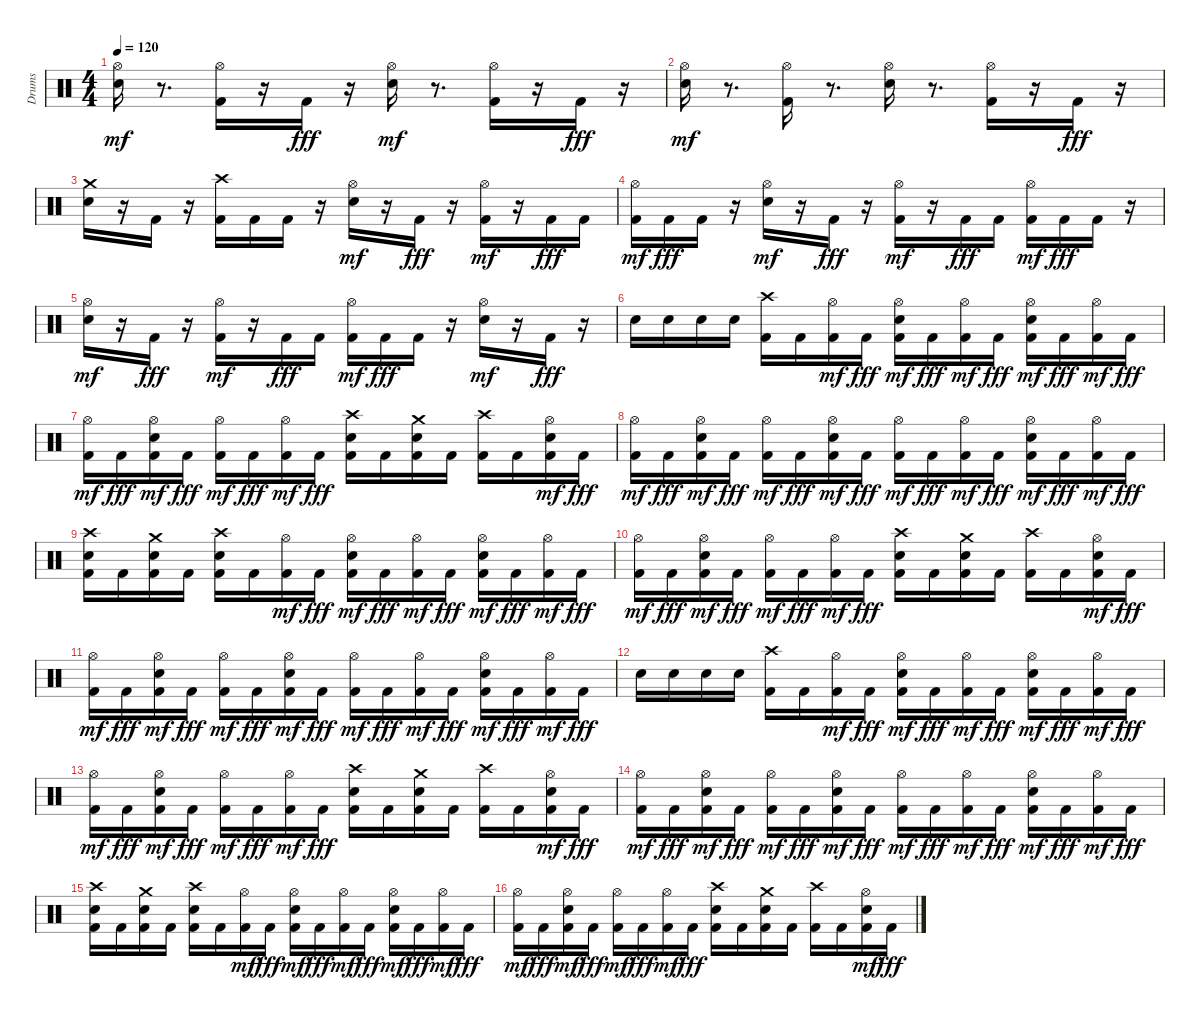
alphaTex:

\track ("Drums" "Drums") {instrument percussion}
\staff {score}
\articulation defaults
\ts (4 4)
\tempo 120
\clef neutral
\ks c
("Electric Snare (hit)" "Hi-Hat (open)").16{dy mf} r.8{d} ("Kick (hit) 2" "Hi-Hat (open)").16 r.16 "Kick (hit) 2".16{dy fff} r.16 ("Electric Snare (hit)" "Hi-Hat (open)").16{dy mf} r.8{d} ("Kick (hit) 2" "Hi-Hat (open)").16 r.16 "Kick (hit) 2".16{dy fff} r.16 |
("Electric Snare (hit)" "Hi-Hat (open)").16{dy mf} r.8{d} ("Kick (hit) 2" "Hi-Hat (open)").16 r.8{d} ("Electric Snare (hit)" "Hi-Hat (open)").16 r.8{d} ("Kick (hit) 2" "Hi-Hat (open)").16 r.16 "Kick (hit) 2".16{dy fff} r.16 |
("Electric Snare (hit)" "Crash medium (hit)").16 r.16 "Kick (hit) 2".16 r.16 ("Kick (hit) 2" "Crash high (hit)").16 "Kick (hit) 2".16 "Kick (hit) 2".16 r.16 ("Electric Snare (hit)" "Hi-Hat (open)").16{dy mf} r.16 "Kick (hit) 2".16{dy fff} r.16 ("Kick (hit) 2" "Hi-Hat (open)").16{dy mf} r.16 "Kick (hit) 2".16{dy fff} "Kick (hit) 2".16 |
("Kick (hit) 2" "Hi-Hat (open)").16{dy mf} "Kick (hit) 2".16{dy fff} "Kick (hit) 2".16 r.16 ("Electric Snare (hit)" "Hi-Hat (open)").16{dy mf} r.16 "Kick (hit) 2".16{dy fff} r.16 ("Kick (hit) 2" "Hi-Hat (open)").16{dy mf} r.16 "Kick (hit) 2".16{dy fff} "Kick (hit) 2".16 ("Kick (hit) 2" "Hi-Hat (open)").16{dy mf} "Kick (hit) 2".16{dy fff} "Kick (hit) 2".16 r.16 |
("Electric Snare (hit)" "Hi-Hat (open)").16{dy mf} r.16 "Kick (hit) 2".16{dy fff} r.16 ("Kick (hit) 2" "Hi-Hat (open)").16{dy mf} r.16 "Kick (hit) 2".16{dy fff} "Kick (hit) 2".16 ("Kick (hit) 2" "Hi-Hat (open)").16{dy mf} "Kick (hit) 2".16{dy fff} "Kick (hit) 2".16 r.16 ("Electric Snare (hit)" "Hi-Hat (open)").16{dy mf} r.16 "Kick (hit) 2".16{dy fff} r.16 |
"Electric Snare (hit)".16 "Electric Snare (hit)".16 "Electric Snare (hit)".16 "Electric Snare (hit)".16 ("Kick (hit) 2" "Crash high (hit)").16 "Kick (hit) 2".16 ("Kick (hit) 2" "Hi-Hat (open)").16{dy mf} "Kick (hit) 2".16{dy fff} ("Kick (hit) 2" "Electric Snare (hit)" "Hi-Hat (open)").16{dy mf} "Kick (hit) 2".16{dy fff} ("Kick (hit) 2" "Hi-Hat (open)").16{dy mf} "Kick (hit) 2".16{dy fff} ("Kick (hit) 2" "Electric Snare (hit)" "Hi-Hat (open)").16{dy mf} "Kick (hit) 2".16{dy fff} ("Kick (hit) 2" "Hi-Hat (open)").16{dy mf} "Kick (hit) 2".16{dy fff} |
("Kick (hit) 2" "Hi-Hat (open)").16{dy mf} "Kick (hit) 2".16{dy fff} ("Kick (hit) 2" "Electric Snare (hit)" "Hi-Hat (open)").16{dy mf} "Kick (hit) 2".16{dy fff} ("Kick (hit) 2" "Hi-Hat (open)").16{dy mf} "Kick (hit) 2".16{dy fff} ("Kick (hit) 2" "Hi-Hat (open)").16{dy mf} "Kick (hit) 2".16{dy fff} ("Kick (hit) 2" "Electric Snare (hit)" "Crash high (hit)").16 "Kick (hit) 2".16 ("Kick (hit) 2" "Electric Snare (hit)" "Crash medium (hit)").16 "Kick (hit) 2".16 ("Kick (hit) 2" "Crash high (hit)").16 "Kick (hit) 2".16 ("Kick (hit) 2" "Electric Snare (hit)" "Hi-Hat (open)").16{dy mf} "Kick (hit) 2".16{dy fff} |
("Kick (hit) 2" "Hi-Hat (open)").16{dy mf} "Kick (hit) 2".16{dy fff} ("Kick (hit) 2" "Electric Snare (hit)" "Hi-Hat (open)").16{dy mf} "Kick (hit) 2".16{dy fff} ("Kick (hit) 2" "Hi-Hat (open)").16{dy mf} "Kick (hit) 2".16{dy fff} ("Kick (hit) 2" "Electric Snare (hit)" "Hi-Hat (open)").16{dy mf} "Kick (hit) 2".16{dy fff} ("Kick (hit) 2" "Hi-Hat (open)").16{dy mf} "Kick (hit) 2".16{dy fff} ("Kick (hit) 2" "Hi-Hat (open)").16{dy mf} "Kick (hit) 2".16{dy fff} ("Kick (hit) 2" "Electric Snare (hit)" "Hi-Hat (open)").16{dy mf} "Kick (hit) 2".16{dy fff} ("Kick (hit) 2" "Hi-Hat (open)").16{dy mf} "Kick (hit) 2".16{dy fff} |
("Kick (hit) 2" "Electric Snare (hit)" "Crash high (hit)").16 "Kick (hit) 2".16 ("Kick (hit) 2" "Electric Snare (hit)" "Crash medium (hit)").16 "Kick (hit) 2".16 ("Kick (hit) 2" "Electric Snare (hit)" "Crash high (hit)").16 "Kick (hit) 2".16 ("Kick (hit) 2" "Hi-Hat (open)").16{dy mf} "Kick (hit) 2".16{dy fff} ("Kick (hit) 2" "Electric Snare (hit)" "Hi-Hat (open)").16{dy mf} "Kick (hit) 2".16{dy fff} ("Kick (hit) 2" "Hi-Hat (open)").16{dy mf} "Kick (hit) 2".16{dy fff} ("Kick (hit) 2" "Electric Snare (hit)" "Hi-Hat (open)").16{dy mf} "Kick (hit) 2".16{dy fff} ("Kick (hit) 2" "Hi-Hat (open)").16{dy mf} "Kick (hit) 2".16{dy fff} |
("Kick (hit) 2" "Hi-Hat (open)").16{dy mf} "Kick (hit) 2".16{dy fff} ("Kick (hit) 2" "Electric Snare (hit)" "Hi-Hat (open)").16{dy mf} "Kick (hit) 2".16{dy fff} ("Kick (hit) 2" "Hi-Hat (open)").16{dy mf} "Kick (hit) 2".16{dy fff} ("Kick (hit) 2" "Hi-Hat (open)").16{dy mf} "Kick (hit) 2".16{dy fff} ("Kick (hit) 2" "Electric Snare (hit)" "Crash high (hit)").16 "Kick (hit) 2".16 ("Kick (hit) 2" "Electric Snare (hit)" "Crash medium (hit)").16 "Kick (hit) 2".16 ("Kick (hit) 2" "Crash high (hit)").16 "Kick (hit) 2".16 ("Kick (hit) 2" "Electric Snare (hit)" "Hi-Hat (open)").16{dy mf} "Kick (hit) 2".16{dy fff} |
("Kick (hit) 2" "Hi-Hat (open)").16{dy mf} "Kick (hit) 2".16{dy fff} ("Kick (hit) 2" "Electric Snare (hit)" "Hi-Hat (open)").16{dy mf} "Kick (hit) 2".16{dy fff} ("Kick (hit) 2" "Hi-Hat (open)").16{dy mf} "Kick (hit) 2".16{dy fff} ("Kick (hit) 2" "Electric Snare (hit)" "Hi-Hat (open)").16{dy mf} "Kick (hit) 2".16{dy fff} ("Kick (hit) 2" "Hi-Hat (open)").16{dy mf} "Kick (hit) 2".16{dy fff} ("Kick (hit) 2" "Hi-Hat (open)").16{dy mf} "Kick (hit) 2".16{dy fff} ("Kick (hit) 2" "Electric Snare (hit)" "Hi-Hat (open)").16{dy mf} "Kick (hit) 2".16{dy fff} ("Kick (hit) 2" "Hi-Hat (open)").16{dy mf} "Kick (hit) 2".16{dy fff} |
"Electric Snare (hit)".16 "Electric Snare (hit)".16 "Electric Snare (hit)".16 "Electric Snare (hit)".16 ("Kick (hit) 2" "Crash high (hit)").16 "Kick (hit) 2".16 ("Kick (hit) 2" "Hi-Hat (open)").16{dy mf} "Kick (hit) 2".16{dy fff} ("Kick (hit) 2" "Electric Snare (hit)" "Hi-Hat (open)").16{dy mf} "Kick (hit) 2".16{dy fff} ("Kick (hit) 2" "Hi-Hat (open)").16{dy mf} "Kick (hit) 2".16{dy fff} ("Kick (hit) 2" "Electric Snare (hit)" "Hi-Hat (open)").16{dy mf} "Kick (hit) 2".16{dy fff} ("Kick (hit) 2" "Hi-Hat (open)").16{dy mf} "Kick (hit) 2".16{dy fff} |
("Kick (hit) 2" "Hi-Hat (open)").16{dy mf} "Kick (hit) 2".16{dy fff} ("Kick (hit) 2" "Electric Snare (hit)" "Hi-Hat (open)").16{dy mf} "Kick (hit) 2".16{dy fff} ("Kick (hit) 2" "Hi-Hat (open)").16{dy mf} "Kick (hit) 2".16{dy fff} ("Kick (hit) 2" "Hi-Hat (open)").16{dy mf} "Kick (hit) 2".16{dy fff} ("Kick (hit) 2" "Electric Snare (hit)" "Crash high (hit)").16 "Kick (hit) 2".16 ("Kick (hit) 2" "Electric Snare (hit)" "Crash medium (hit)").16 "Kick (hit) 2".16 ("Kick (hit) 2" "Crash high (hit)").16 "Kick (hit) 2".16 ("Kick (hit) 2" "Electric Snare (hit)" "Hi-Hat (open)").16{dy mf} "Kick (hit) 2".16{dy fff} |
("Kick (hit) 2" "Hi-Hat (open)").16{dy mf} "Kick (hit) 2".16{dy fff} ("Kick (hit) 2" "Electric Snare (hit)" "Hi-Hat (open)").16{dy mf} "Kick (hit) 2".16{dy fff} ("Kick (hit) 2" "Hi-Hat (open)").16{dy mf} "Kick (hit) 2".16{dy fff} ("Kick (hit) 2" "Electric Snare (hit)" "Hi-Hat (open)").16{dy mf} "Kick (hit) 2".16{dy fff} ("Kick (hit) 2" "Hi-Hat (open)").16{dy mf} "Kick (hit) 2".16{dy fff} ("Kick (hit) 2" "Hi-Hat (open)").16{dy mf} "Kick (hit) 2".16{dy fff} ("Kick (hit) 2" "Electric Snare (hit)" "Hi-Hat (open)").16{dy mf} "Kick (hit) 2".16{dy fff} ("Kick (hit) 2" "Hi-Hat (open)").16{dy mf} "Kick (hit) 2".16{dy fff} |
("Kick (hit) 2" "Electric Snare (hit)" "Crash high (hit)").16 "Kick (hit) 2".16 ("Kick (hit) 2" "Electric Snare (hit)" "Crash medium (hit)").16 "Kick (hit) 2".16 ("Kick (hit) 2" "Electric Snare (hit)" "Crash high (hit)").16 "Kick (hit) 2".16 ("Kick (hit) 2" "Hi-Hat (open)").16{dy mf} "Kick (hit) 2".16{dy fff} ("Kick (hit) 2" "Electric Snare (hit)" "Hi-Hat (open)").16{dy mf} "Kick (hit) 2".16{dy fff} ("Kick (hit) 2" "Hi-Hat (open)").16{dy mf} "Kick (hit) 2".16{dy fff} ("Kick (hit) 2" "Electric Snare (hit)" "Hi-Hat (open)").16{dy mf} "Kick (hit) 2".16{dy fff} ("Kick (hit) 2" "Hi-Hat (open)").16{dy mf} "Kick (hit) 2".16{dy fff} |
("Kick (hit) 2" "Hi-Hat (open)").16{dy mf} "Kick (hit) 2".16{dy fff} ("Kick (hit) 2" "Electric Snare (hit)" "Hi-Hat (open)").16{dy mf} "Kick (hit) 2".16{dy fff} ("Kick (hit) 2" "Hi-Hat (open)").16{dy mf} "Kick (hit) 2".16{dy fff} ("Kick (hit) 2" "Hi-Hat (open)").16{dy mf} "Kick (hit) 2".16{dy fff} ("Kick (hit) 2" "Electric Snare (hit)" "Crash high (hit)").16 "Kick (hit) 2".16 ("Kick (hit) 2" "Electric Snare (hit)" "Crash medium (hit)").16 "Kick (hit) 2".16 ("Kick (hit) 2" "Crash high (hit)").16 "Kick (hit) 2".16 ("Kick (hit) 2" "Electric Snare (hit)" "Hi-Hat (open)").16{dy mf} "Kick (hit) 2".16{dy fff}
